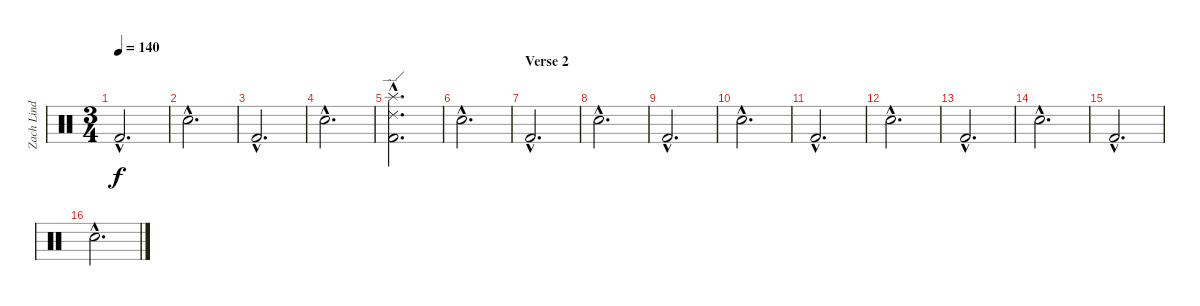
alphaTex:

\track ("Zach Lind - Drums" "Zach Lind ") {instrument percussion}
\staff {score}
\articulation defaults
\ts (3 4)
\tempo 140
\clef neutral
\ks c "Kick (hit) 2"{hac}.2{d dy f}
|
"Electric Snare (hit)"{hac}.2{d} |
"Kick (hit) 2"{hac}.2{d} |
"Electric Snare (hit)"{hac}.2{d} |
("Ride (edge) 2"{hac} "Splash (hit)"{hac} "Kick (hit) 2"{hac}).2{d} |
"Electric Snare (hit)"{hac}.2{d} |
\section ("" "Verse 2")
"Kick (hit) 2"{hac}.2{d} |
"Electric Snare (hit)"{hac}.2{d} |
"Kick (hit) 2"{hac}.2{d} |
"Electric Snare (hit)"{hac}.2{d} |
"Kick (hit) 2"{hac}.2{d} |
"Electric Snare (hit)"{hac}.2{d} |
"Kick (hit) 2"{hac}.2{d} |
"Electric Snare (hit)"{hac}.2{d} |
"Kick (hit) 2"{hac}.2{d} |
"Electric Snare (hit)"{hac}.2{d}
